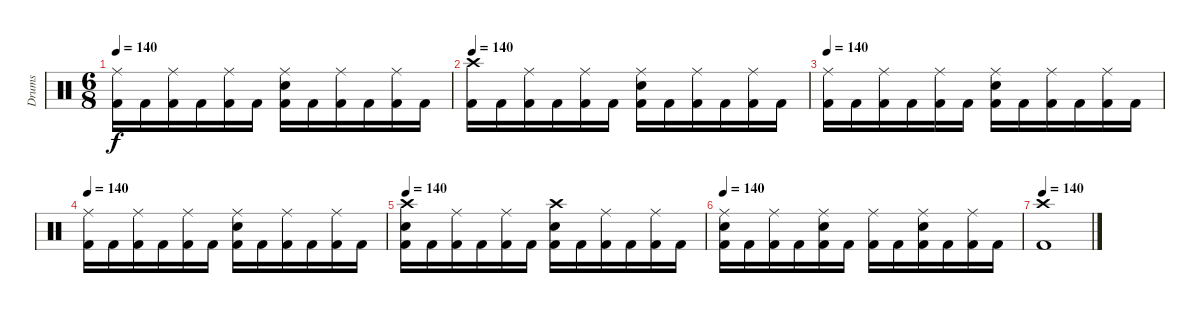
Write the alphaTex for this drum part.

\track ("Drums" "Drums") {instrument percussion}
\staff {score}
\articulation defaults
\ts (6 8)
\tempo 140
\clef neutral
\ks c
("Kick (hit) 2" "Ride (middle)").16{dy f} "Kick (hit) 2".16 ("Kick (hit) 2" "Ride (middle)").16 "Kick (hit) 2".16 ("Kick (hit) 2" "Ride (middle)").16 "Kick (hit) 2".16 ("Kick (hit) 2" "Electric Snare (hit)" "Ride (middle)").16 "Kick (hit) 2".16 ("Kick (hit) 2" "Ride (middle)").16 "Kick (hit) 2".16 ("Kick (hit) 2" "Ride (middle)").16 "Kick (hit) 2".16 |
\tempo 140
("Kick (hit) 2" "Crash high (hit)").16 "Kick (hit) 2".16 ("Kick (hit) 2" "Ride (middle)").16 "Kick (hit) 2".16 ("Kick (hit) 2" "Ride (middle)").16 "Kick (hit) 2".16 ("Kick (hit) 2" "Electric Snare (hit)" "Ride (middle)").16 "Kick (hit) 2".16 ("Kick (hit) 2" "Ride (middle)").16 "Kick (hit) 2".16 ("Kick (hit) 2" "Ride (middle)").16 "Kick (hit) 2".16 |
\tempo 140
("Kick (hit) 2" "Ride (middle)").16 "Kick (hit) 2".16 ("Kick (hit) 2" "Ride (middle)").16 "Kick (hit) 2".16 ("Kick (hit) 2" "Ride (middle)").16 "Kick (hit) 2".16 ("Kick (hit) 2" "Electric Snare (hit)" "Ride (middle)").16 "Kick (hit) 2".16 ("Kick (hit) 2" "Ride (middle)").16 "Kick (hit) 2".16 ("Kick (hit) 2" "Ride (middle)").16 "Kick (hit) 2".16 |
\tempo 140
("Kick (hit) 2" "Ride (middle)").16 "Kick (hit) 2".16 ("Kick (hit) 2" "Ride (middle)").16 "Kick (hit) 2".16 ("Kick (hit) 2" "Ride (middle)").16 "Kick (hit) 2".16 ("Kick (hit) 2" "Electric Snare (hit)" "Ride (middle)").16 "Kick (hit) 2".16 ("Kick (hit) 2" "Ride (middle)").16 "Kick (hit) 2".16 ("Kick (hit) 2" "Ride (middle)").16 "Kick (hit) 2".16 |
\tempo 140
("Kick (hit) 2" "Electric Snare (hit)" "Crash high (hit)").16 "Kick (hit) 2".16 ("Kick (hit) 2" "Ride (middle)").16 "Kick (hit) 2".16 ("Kick (hit) 2" "Ride (middle)").16 "Kick (hit) 2".16 ("Kick (hit) 2" "Electric Snare (hit)" "Crash high (hit)").16 "Kick (hit) 2".16 ("Kick (hit) 2" "Ride (middle)").16 "Kick (hit) 2".16 ("Kick (hit) 2" "Ride (middle)").16 "Kick (hit) 2".16 |
\tempo 140
("Kick (hit) 2" "Electric Snare (hit)" "Ride (middle)").16 "Kick (hit) 2".16 ("Kick (hit) 2" "Ride (middle)").16 "Kick (hit) 2".16 ("Kick (hit) 2" "Electric Snare (hit)" "Ride (middle)").16 "Kick (hit) 2".16 ("Kick (hit) 2" "Ride (middle)").16 "Kick (hit) 2".16 ("Kick (hit) 2" "Electric Snare (hit)" "Ride (middle)").16 "Kick (hit) 2".16 ("Kick (hit) 2" "Ride (middle)").16 "Kick (hit) 2".16 |
\tempo 140
("Kick (hit) 2" "Crash high (hit)").1
